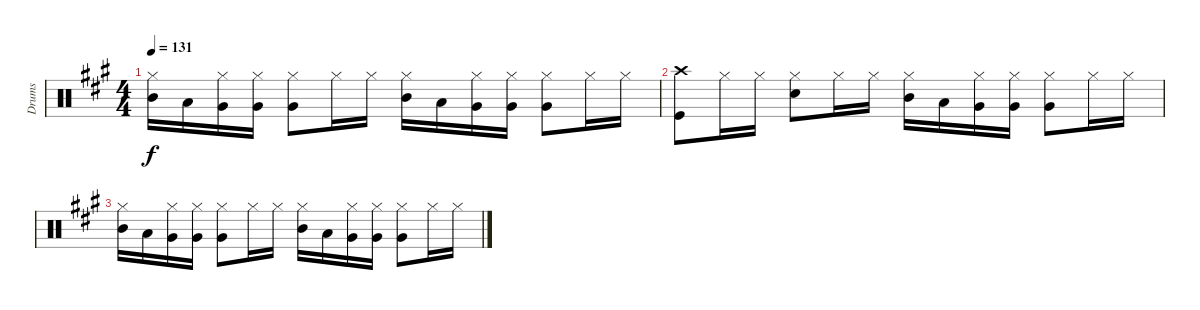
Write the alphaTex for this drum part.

\track ("Drums" "Drums") {instrument percussion}
\staff {score}
\articulation defaults
\ts (4 4)
\tempo 131
\clef neutral
\ks a
("Hi-Hat (closed)" "Mid Tom (hit)").16{dy f} "Low Tom (hit)".16 ("Hi-Hat (closed)" "Very Low Tom (hit)").16 ("Hi-Hat (closed)" "Very Low Tom (hit)").16 ("Hi-Hat (closed)" "Very Low Tom (hit)").8 "Hi-Hat (closed)".16 "Hi-Hat (closed)".16 ("Hi-Hat (closed)" "Mid Tom (hit)").16 "Low Tom (hit)".16 ("Hi-Hat (closed)" "Very Low Tom (hit)").16 ("Hi-Hat (closed)" "Very Low Tom (hit)").16 ("Hi-Hat (closed)" "Very Low Tom (hit)").8 "Hi-Hat (closed)".16 "Hi-Hat (closed)".16 |
("Crash high (hit)" "Kick (hit)").8 "Hi-Hat (closed)".16 "Hi-Hat (closed)".16 ("Hi-Hat (closed)" "Snare (hit) 2").8 "Hi-Hat (closed)".16 "Hi-Hat (closed)".16 ("Hi-Hat (closed)" "Mid Tom (hit)").16 "Low Tom (hit)".16 ("Hi-Hat (closed)" "Very Low Tom (hit)").16 ("Hi-Hat (closed)" "Very Low Tom (hit)").16 ("Hi-Hat (closed)" "Very Low Tom (hit)").8 "Hi-Hat (closed)".16 "Hi-Hat (closed)".16 |
("Hi-Hat (closed)" "Mid Tom (hit)").16 "Low Tom (hit)".16 ("Hi-Hat (closed)" "Very Low Tom (hit)").16 ("Hi-Hat (closed)" "Very Low Tom (hit)").16 ("Hi-Hat (closed)" "Very Low Tom (hit)").8 "Hi-Hat (closed)".16 "Hi-Hat (closed)".16 ("Hi-Hat (closed)" "Mid Tom (hit)").16 "Low Tom (hit)".16 ("Hi-Hat (closed)" "Very Low Tom (hit)").16 ("Hi-Hat (closed)" "Very Low Tom (hit)").16 ("Hi-Hat (closed)" "Very Low Tom (hit)").8 "Hi-Hat (closed)".16 "Hi-Hat (closed)".16
